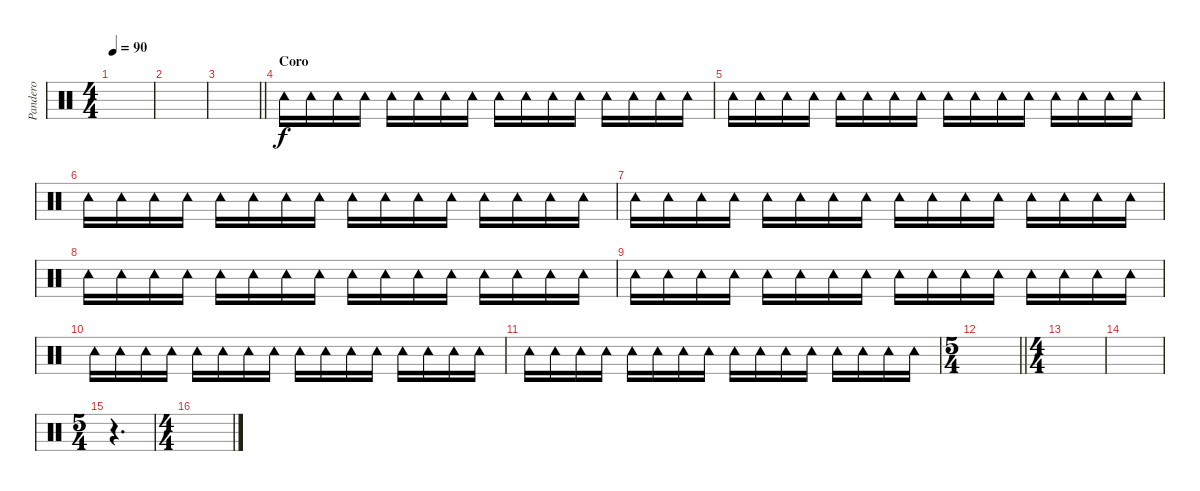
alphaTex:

\track ("Pandero" "Pandero") {instrument percussion}
\staff {score}
\articulation defaults
\ts (4 4)
\tempo 90
\clef neutral
\ks c
|
|
\barLineRight lightlight
|
\section ("" "Coro")
"Tambourine (hit)".16 "Tambourine (hit)".16 "Tambourine (hit)".16 "Tambourine (hit)".16 "Tambourine (hit)".16 "Tambourine (hit)".16 "Tambourine (hit)".16 "Tambourine (hit)".16 "Tambourine (hit)".16 "Tambourine (hit)".16 "Tambourine (hit)".16 "Tambourine (hit)".16 "Tambourine (hit)".16 "Tambourine (hit)".16 "Tambourine (hit)".16 "Tambourine (hit)".16 |
"Tambourine (hit)".16 "Tambourine (hit)".16 "Tambourine (hit)".16 "Tambourine (hit)".16 "Tambourine (hit)".16 "Tambourine (hit)".16 "Tambourine (hit)".16 "Tambourine (hit)".16 "Tambourine (hit)".16 "Tambourine (hit)".16 "Tambourine (hit)".16 "Tambourine (hit)".16 "Tambourine (hit)".16 "Tambourine (hit)".16 "Tambourine (hit)".16 "Tambourine (hit)".16 |
"Tambourine (hit)".16 "Tambourine (hit)".16 "Tambourine (hit)".16 "Tambourine (hit)".16 "Tambourine (hit)".16 "Tambourine (hit)".16 "Tambourine (hit)".16 "Tambourine (hit)".16 "Tambourine (hit)".16 "Tambourine (hit)".16 "Tambourine (hit)".16 "Tambourine (hit)".16 "Tambourine (hit)".16 "Tambourine (hit)".16 "Tambourine (hit)".16 "Tambourine (hit)".16 |
"Tambourine (hit)".16 "Tambourine (hit)".16 "Tambourine (hit)".16 "Tambourine (hit)".16 "Tambourine (hit)".16 "Tambourine (hit)".16 "Tambourine (hit)".16 "Tambourine (hit)".16 "Tambourine (hit)".16 "Tambourine (hit)".16 "Tambourine (hit)".16 "Tambourine (hit)".16 "Tambourine (hit)".16 "Tambourine (hit)".16 "Tambourine (hit)".16 "Tambourine (hit)".16 |
"Tambourine (hit)".16 "Tambourine (hit)".16 "Tambourine (hit)".16 "Tambourine (hit)".16 "Tambourine (hit)".16 "Tambourine (hit)".16 "Tambourine (hit)".16 "Tambourine (hit)".16 "Tambourine (hit)".16 "Tambourine (hit)".16 "Tambourine (hit)".16 "Tambourine (hit)".16 "Tambourine (hit)".16 "Tambourine (hit)".16 "Tambourine (hit)".16 "Tambourine (hit)".16 |
"Tambourine (hit)".16 "Tambourine (hit)".16 "Tambourine (hit)".16 "Tambourine (hit)".16 "Tambourine (hit)".16 "Tambourine (hit)".16 "Tambourine (hit)".16 "Tambourine (hit)".16 "Tambourine (hit)".16 "Tambourine (hit)".16 "Tambourine (hit)".16 "Tambourine (hit)".16 "Tambourine (hit)".16 "Tambourine (hit)".16 "Tambourine (hit)".16 "Tambourine (hit)".16 |
"Tambourine (hit)".16 "Tambourine (hit)".16 "Tambourine (hit)".16 "Tambourine (hit)".16 "Tambourine (hit)".16 "Tambourine (hit)".16 "Tambourine (hit)".16 "Tambourine (hit)".16 "Tambourine (hit)".16 "Tambourine (hit)".16 "Tambourine (hit)".16 "Tambourine (hit)".16 "Tambourine (hit)".16 "Tambourine (hit)".16 "Tambourine (hit)".16 "Tambourine (hit)".16 |
"Tambourine (hit)".16 "Tambourine (hit)".16 "Tambourine (hit)".16 "Tambourine (hit)".16 "Tambourine (hit)".16 "Tambourine (hit)".16 "Tambourine (hit)".16 "Tambourine (hit)".16 "Tambourine (hit)".16 "Tambourine (hit)".16 "Tambourine (hit)".16 "Tambourine (hit)".16 "Tambourine (hit)".16 "Tambourine (hit)".16 "Tambourine (hit)".16 "Tambourine (hit)".16 |
\ts (5 4)
\barLineRight lightlight
|
\ts (4 4)
|
|
\ts (5 4)
r.4{d} |
\ts (4 4)
